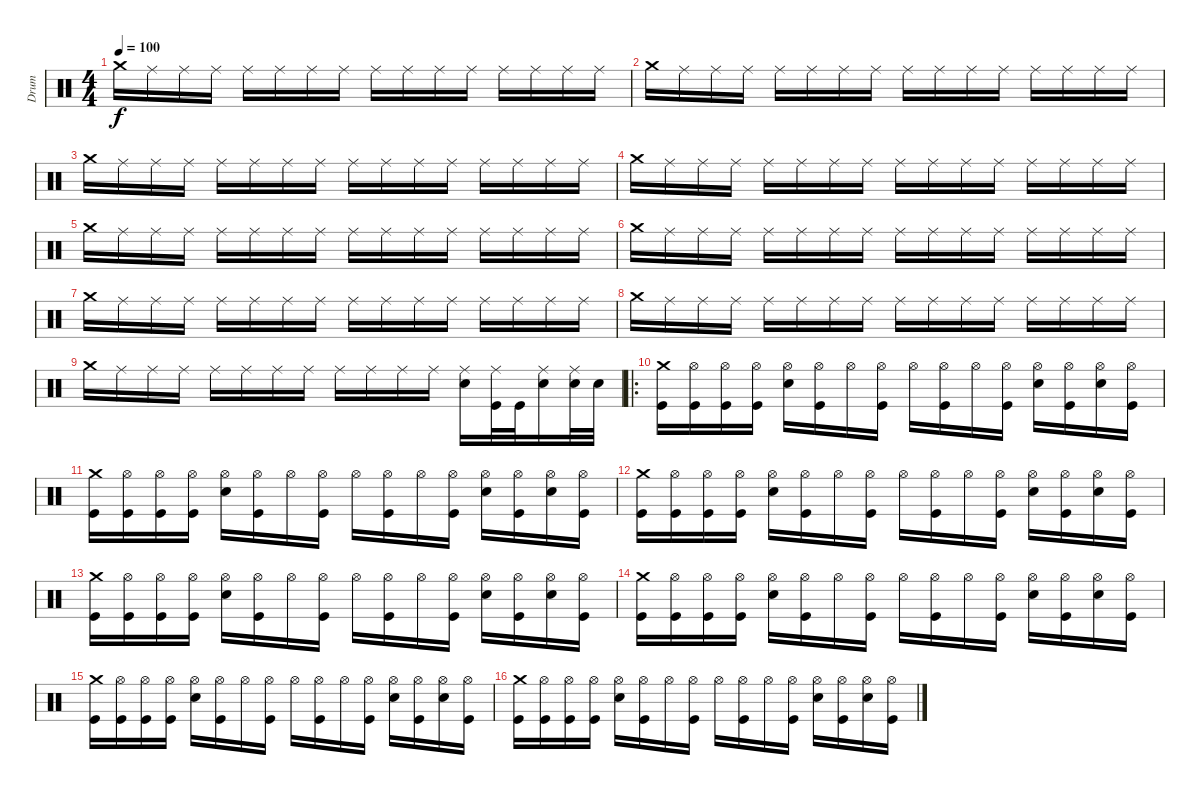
\track ("Drum" "Drum") {instrument percussion}
\staff {score}
\articulation defaults
\ts (4 4)
\tempo 100
\clef neutral
\ks c "Crash medium (hit)".16{dy f} "Ride (middle)".16 "Ride (middle)".16 "Ride (middle)".16 "Ride (middle)".16 "Ride (middle)".16 "Ride (middle)".16 "Ride (middle)".16 "Ride (middle)".16 "Ride (middle)".16 "Ride (middle)".16 "Ride (middle)".16 "Ride (middle)".16 "Ride (middle)".16 "Ride (middle)".16 "Ride (middle)".16
|
"Crash medium (hit)".16 "Ride (middle)".16 "Ride (middle)".16 "Ride (middle)".16 "Ride (middle)".16 "Ride (middle)".16 "Ride (middle)".16 "Ride (middle)".16 "Ride (middle)".16 "Ride (middle)".16 "Ride (middle)".16 "Ride (middle)".16 "Ride (middle)".16 "Ride (middle)".16 "Ride (middle)".16 "Ride (middle)".16 |
"Crash medium (hit)".16 "Ride (middle)".16 "Ride (middle)".16 "Ride (middle)".16 "Ride (middle)".16 "Ride (middle)".16 "Ride (middle)".16 "Ride (middle)".16 "Ride (middle)".16 "Ride (middle)".16 "Ride (middle)".16 "Ride (middle)".16 "Ride (middle)".16 "Ride (middle)".16 "Ride (middle)".16 "Ride (middle)".16 |
"Crash medium (hit)".16 "Ride (middle)".16 "Ride (middle)".16 "Ride (middle)".16 "Ride (middle)".16 "Ride (middle)".16 "Ride (middle)".16 "Ride (middle)".16 "Ride (middle)".16 "Ride (middle)".16 "Ride (middle)".16 "Ride (middle)".16 "Ride (middle)".16 "Ride (middle)".16 "Ride (middle)".16 "Ride (middle)".16 |
"Crash medium (hit)".16 "Ride (middle)".16 "Ride (middle)".16 "Ride (middle)".16 "Ride (middle)".16 "Ride (middle)".16 "Ride (middle)".16 "Ride (middle)".16 "Ride (middle)".16 "Ride (middle)".16 "Ride (middle)".16 "Ride (middle)".16 "Ride (middle)".16 "Ride (middle)".16 "Ride (middle)".16 "Ride (middle)".16 |
"Crash medium (hit)".16 "Ride (middle)".16 "Ride (middle)".16 "Ride (middle)".16 "Ride (middle)".16 "Ride (middle)".16 "Ride (middle)".16 "Ride (middle)".16 "Ride (middle)".16 "Ride (middle)".16 "Ride (middle)".16 "Ride (middle)".16 "Ride (middle)".16 "Ride (middle)".16 "Ride (middle)".16 "Ride (middle)".16 |
"Crash medium (hit)".16 "Ride (middle)".16 "Ride (middle)".16 "Ride (middle)".16 "Ride (middle)".16 "Ride (middle)".16 "Ride (middle)".16 "Ride (middle)".16 "Ride (middle)".16 "Ride (middle)".16 "Ride (middle)".16 "Ride (middle)".16 "Ride (middle)".16 "Ride (middle)".16 "Ride (middle)".16 "Ride (middle)".16 |
"Crash medium (hit)".16 "Ride (middle)".16 "Ride (middle)".16 "Ride (middle)".16 "Ride (middle)".16 "Ride (middle)".16 "Ride (middle)".16 "Ride (middle)".16 "Ride (middle)".16 "Ride (middle)".16 "Ride (middle)".16 "Ride (middle)".16 "Ride (middle)".16 "Ride (middle)".16 "Ride (middle)".16 "Ride (middle)".16 |
"Crash medium (hit)".16 "Ride (middle)".16 "Ride (middle)".16 "Ride (middle)".16 "Ride (middle)".16 "Ride (middle)".16 "Ride (middle)".16 "Ride (middle)".16 "Ride (middle)".16 "Ride (middle)".16 "Ride (middle)".16 "Ride (middle)".16 ("Ride (middle)" "Electric Snare (hit)").16 ("Ride (middle)" "Kick (hit)").32 "Kick (hit)".32 ("Ride (middle)" "Electric Snare (hit)").16 ("Ride (middle)" "Electric Snare (hit)").32 "Electric Snare (hit)".32 |
\ro
("Crash medium (hit)" "Kick (hit)").16 ("Hi-Hat (open)" "Kick (hit)").16 ("Hi-Hat (open)" "Kick (hit)").16 ("Hi-Hat (open)" "Kick (hit)").16 ("Hi-Hat (open)" "Electric Snare (hit)").16 ("Hi-Hat (open)" "Kick (hit)").16 "Hi-Hat (open)".16 ("Hi-Hat (open)" "Kick (hit)").16 "Hi-Hat (open)".16 ("Hi-Hat (open)" "Kick (hit)").16 "Hi-Hat (open)".16 ("Hi-Hat (open)" "Kick (hit)").16 ("Hi-Hat (open)" "Electric Snare (hit)").16 ("Hi-Hat (open)" "Kick (hit)").16 ("Hi-Hat (open)" "Electric Snare (hit)").16 ("Hi-Hat (open)" "Kick (hit)").16 |
("Crash medium (hit)" "Kick (hit)").16 ("Hi-Hat (open)" "Kick (hit)").16 ("Hi-Hat (open)" "Kick (hit)").16 ("Hi-Hat (open)" "Kick (hit)").16 ("Hi-Hat (open)" "Electric Snare (hit)").16 ("Hi-Hat (open)" "Kick (hit)").16 "Hi-Hat (open)".16 ("Hi-Hat (open)" "Kick (hit)").16 "Hi-Hat (open)".16 ("Hi-Hat (open)" "Kick (hit)").16 "Hi-Hat (open)".16 ("Hi-Hat (open)" "Kick (hit)").16 ("Hi-Hat (open)" "Electric Snare (hit)").16 ("Hi-Hat (open)" "Kick (hit)").16 ("Hi-Hat (open)" "Electric Snare (hit)").16 ("Hi-Hat (open)" "Kick (hit)").16 |
("Crash medium (hit)" "Kick (hit)").16 ("Hi-Hat (open)" "Kick (hit)").16 ("Hi-Hat (open)" "Kick (hit)").16 ("Hi-Hat (open)" "Kick (hit)").16 ("Hi-Hat (open)" "Electric Snare (hit)").16 ("Hi-Hat (open)" "Kick (hit)").16 "Hi-Hat (open)".16 ("Hi-Hat (open)" "Kick (hit)").16 "Hi-Hat (open)".16 ("Hi-Hat (open)" "Kick (hit)").16 "Hi-Hat (open)".16 ("Hi-Hat (open)" "Kick (hit)").16 ("Hi-Hat (open)" "Electric Snare (hit)").16 ("Hi-Hat (open)" "Kick (hit)").16 ("Hi-Hat (open)" "Electric Snare (hit)").16 ("Hi-Hat (open)" "Kick (hit)").16 |
("Crash medium (hit)" "Kick (hit)").16 ("Hi-Hat (open)" "Kick (hit)").16 ("Hi-Hat (open)" "Kick (hit)").16 ("Hi-Hat (open)" "Kick (hit)").16 ("Hi-Hat (open)" "Electric Snare (hit)").16 ("Hi-Hat (open)" "Kick (hit)").16 "Hi-Hat (open)".16 ("Hi-Hat (open)" "Kick (hit)").16 "Hi-Hat (open)".16 ("Hi-Hat (open)" "Kick (hit)").16 "Hi-Hat (open)".16 ("Hi-Hat (open)" "Kick (hit)").16 ("Hi-Hat (open)" "Electric Snare (hit)").16 ("Hi-Hat (open)" "Kick (hit)").16 ("Hi-Hat (open)" "Electric Snare (hit)").16 ("Hi-Hat (open)" "Kick (hit)").16 |
("Crash medium (hit)" "Kick (hit)").16 ("Hi-Hat (open)" "Kick (hit)").16 ("Hi-Hat (open)" "Kick (hit)").16 ("Hi-Hat (open)" "Kick (hit)").16 ("Hi-Hat (open)" "Electric Snare (hit)").16 ("Hi-Hat (open)" "Kick (hit)").16 "Hi-Hat (open)".16 ("Hi-Hat (open)" "Kick (hit)").16 "Hi-Hat (open)".16 ("Hi-Hat (open)" "Kick (hit)").16 "Hi-Hat (open)".16 ("Hi-Hat (open)" "Kick (hit)").16 ("Hi-Hat (open)" "Electric Snare (hit)").16 ("Hi-Hat (open)" "Kick (hit)").16 ("Hi-Hat (open)" "Electric Snare (hit)").16 ("Hi-Hat (open)" "Kick (hit)").16 |
("Crash medium (hit)" "Kick (hit)").16 ("Hi-Hat (open)" "Kick (hit)").16 ("Hi-Hat (open)" "Kick (hit)").16 ("Hi-Hat (open)" "Kick (hit)").16 ("Hi-Hat (open)" "Electric Snare (hit)").16 ("Hi-Hat (open)" "Kick (hit)").16 "Hi-Hat (open)".16 ("Hi-Hat (open)" "Kick (hit)").16 "Hi-Hat (open)".16 ("Hi-Hat (open)" "Kick (hit)").16 "Hi-Hat (open)".16 ("Hi-Hat (open)" "Kick (hit)").16 ("Hi-Hat (open)" "Electric Snare (hit)").16 ("Hi-Hat (open)" "Kick (hit)").16 ("Hi-Hat (open)" "Electric Snare (hit)").16 ("Hi-Hat (open)" "Kick (hit)").16 |
("Crash medium (hit)" "Kick (hit)").16 ("Hi-Hat (open)" "Kick (hit)").16 ("Hi-Hat (open)" "Kick (hit)").16 ("Hi-Hat (open)" "Kick (hit)").16 ("Hi-Hat (open)" "Electric Snare (hit)").16 ("Hi-Hat (open)" "Kick (hit)").16 "Hi-Hat (open)".16 ("Hi-Hat (open)" "Kick (hit)").16 "Hi-Hat (open)".16 ("Hi-Hat (open)" "Kick (hit)").16 "Hi-Hat (open)".16 ("Hi-Hat (open)" "Kick (hit)").16 ("Hi-Hat (open)" "Electric Snare (hit)").16 ("Hi-Hat (open)" "Kick (hit)").16 ("Hi-Hat (open)" "Electric Snare (hit)").16 ("Hi-Hat (open)" "Kick (hit)").16
